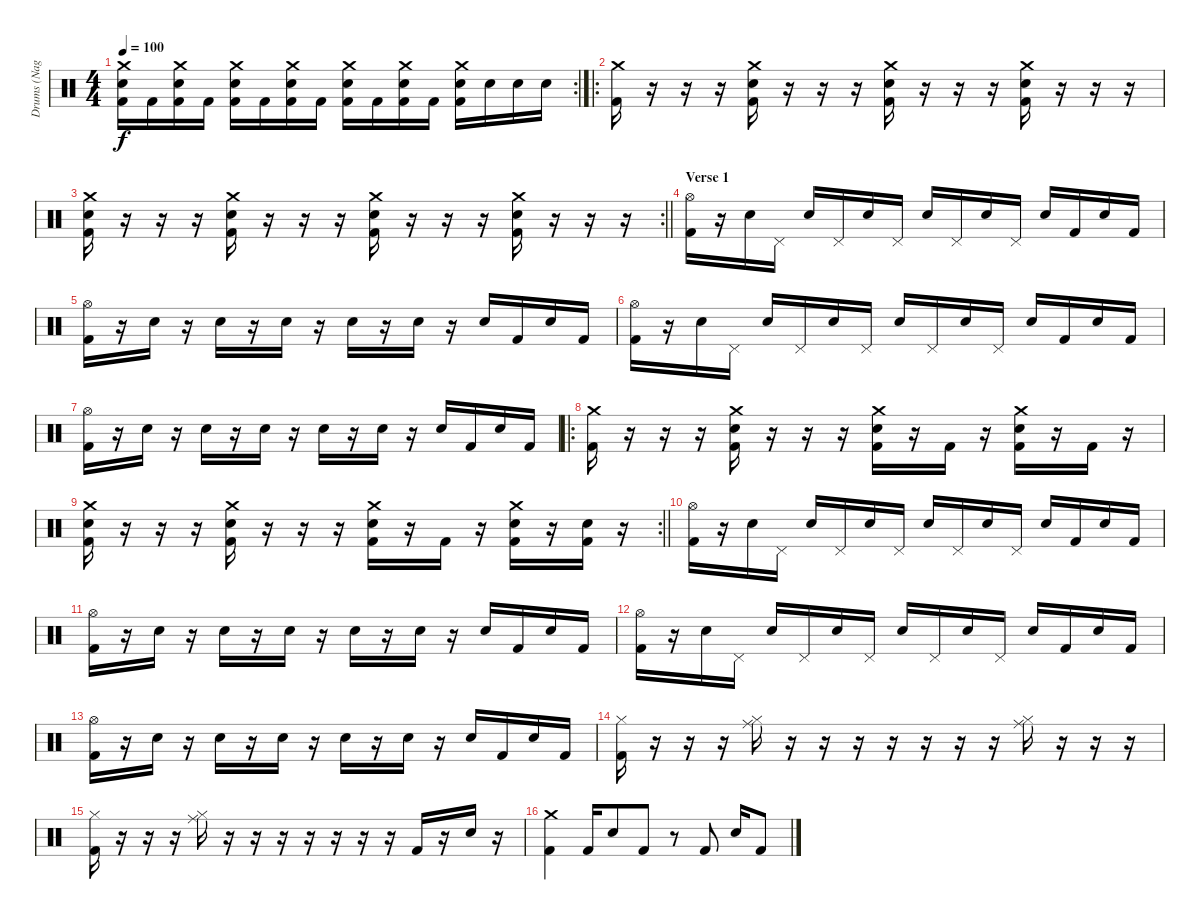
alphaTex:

\track ("Drums (Nagy Dávid)" "Drums (Nag") {instrument percussion}
\staff {score}
\articulation defaults
\rc 2
\ts (4 4)
\tempo 100
\clef neutral
\ks c
("Kick (hit) 2" "Electric Snare (hit)" "Crash medium (hit)").16{dy f} "Kick (hit) 2".16 ("Kick (hit) 2" "Electric Snare (hit)" "Crash medium (hit)").16 "Kick (hit) 2".16 ("Kick (hit) 2" "Electric Snare (hit)" "Crash medium (hit)").16 "Kick (hit) 2".16 ("Kick (hit) 2" "Electric Snare (hit)" "Crash medium (hit)").16 "Kick (hit) 2".16 ("Kick (hit) 2" "Electric Snare (hit)" "Crash medium (hit)").16 "Kick (hit) 2".16 ("Kick (hit) 2" "Electric Snare (hit)" "Crash medium (hit)").16 "Kick (hit) 2".16 ("Kick (hit) 2" "Electric Snare (hit)" "Crash medium (hit)").16 "Electric Snare (hit)".16 "Electric Snare (hit)".16 "Electric Snare (hit)".16 |
\ro
("Kick (hit) 2" "Crash medium (hit)").16 r.16 r.16 r.16 ("Kick (hit) 2" "Electric Snare (hit)" "Crash medium (hit)").16 r.16 r.16 r.16 ("Kick (hit) 2" "Electric Snare (hit)" "Crash medium (hit)").16 r.16 r.16 r.16 ("Kick (hit) 2" "Electric Snare (hit)" "Crash medium (hit)").16 r.16 r.16 r.16 |
\rc 2
\barLineRight lightlight
("Kick (hit) 2" "Electric Snare (hit)" "Crash medium (hit)").16 r.16 r.16 r.16 ("Kick (hit) 2" "Electric Snare (hit)" "Crash medium (hit)").16 r.16 r.16 r.16 ("Kick (hit) 2" "Electric Snare (hit)" "Crash medium (hit)").16 r.16 r.16 r.16 ("Kick (hit) 2" "Electric Snare (hit)" "Crash medium (hit)").16 r.16 r.16 r.16 |
\section ("" "Verse 1")
("Kick (hit) 2" "Hi-Hat (open)").16 r.16 "Electric Snare (hit)".16 "Pedal Hi-Hat (hit)".16 "Electric Snare (hit)".16 "Pedal Hi-Hat (hit)".16 "Electric Snare (hit)".16 "Pedal Hi-Hat (hit)".16 "Electric Snare (hit)".16 "Pedal Hi-Hat (hit)".16 "Electric Snare (hit)".16 "Pedal Hi-Hat (hit)".16 "Electric Snare (hit)".16 "Kick (hit) 2".16 "Electric Snare (hit)".16 "Kick (hit) 2".16 |
("Kick (hit) 2" "Hi-Hat (open)").16 r.16 "Electric Snare (hit)".16 r.16 "Electric Snare (hit)".16 r.16 "Electric Snare (hit)".16 r.16 "Electric Snare (hit)".16 r.16 "Electric Snare (hit)".16 r.16 "Electric Snare (hit)".16 "Kick (hit) 2".16 "Electric Snare (hit)".16 "Kick (hit) 2".16 |
("Kick (hit) 2" "Hi-Hat (open)").16 r.16 "Electric Snare (hit)".16 "Pedal Hi-Hat (hit)".16 "Electric Snare (hit)".16 "Pedal Hi-Hat (hit)".16 "Electric Snare (hit)".16 "Pedal Hi-Hat (hit)".16 "Electric Snare (hit)".16 "Pedal Hi-Hat (hit)".16 "Electric Snare (hit)".16 "Pedal Hi-Hat (hit)".16 "Electric Snare (hit)".16 "Kick (hit) 2".16 "Electric Snare (hit)".16 "Kick (hit) 2".16 |
("Kick (hit) 2" "Hi-Hat (open)").16 r.16 "Electric Snare (hit)".16 r.16 "Electric Snare (hit)".16 r.16 "Electric Snare (hit)".16 r.16 "Electric Snare (hit)".16 r.16 "Electric Snare (hit)".16 r.16 "Electric Snare (hit)".16 "Kick (hit) 2".16 "Electric Snare (hit)".16 "Kick (hit) 2".16 |
\ro
("Kick (hit) 2" "Crash medium (hit)").16 r.16 r.16 r.16 ("Kick (hit) 2" "Electric Snare (hit)" "Crash medium (hit)").16 r.16 r.16 r.16 ("Kick (hit) 2" "Electric Snare (hit)" "Crash medium (hit)").16 r.16 "Kick (hit) 2".16 r.16 ("Kick (hit) 2" "Electric Snare (hit)" "Crash medium (hit)").16 r.16 "Kick (hit) 2".16 r.16 |
\rc 2
\barLineRight lightlight
("Kick (hit) 2" "Electric Snare (hit)" "Crash medium (hit)").16 r.16 r.16 r.16 ("Kick (hit) 2" "Electric Snare (hit)" "Crash medium (hit)").16 r.16 r.16 r.16 ("Kick (hit) 2" "Electric Snare (hit)" "Crash medium (hit)").16 r.16 "Kick (hit) 2".16 r.16 ("Kick (hit) 2" "Electric Snare (hit)" "Crash medium (hit)").16 r.16 ("Kick (hit) 2" "Electric Snare (hit)").16 r.16 |
("Kick (hit) 2" "Hi-Hat (open)").16 r.16 "Electric Snare (hit)".16 "Pedal Hi-Hat (hit)".16 "Electric Snare (hit)".16 "Pedal Hi-Hat (hit)".16 "Electric Snare (hit)".16 "Pedal Hi-Hat (hit)".16 "Electric Snare (hit)".16 "Pedal Hi-Hat (hit)".16 "Electric Snare (hit)".16 "Pedal Hi-Hat (hit)".16 "Electric Snare (hit)".16 "Kick (hit) 2".16 "Electric Snare (hit)".16 "Kick (hit) 2".16 |
("Kick (hit) 2" "Hi-Hat (open)").16 r.16 "Electric Snare (hit)".16 r.16 "Electric Snare (hit)".16 r.16 "Electric Snare (hit)".16 r.16 "Electric Snare (hit)".16 r.16 "Electric Snare (hit)".16 r.16 "Electric Snare (hit)".16 "Kick (hit) 2".16 "Electric Snare (hit)".16 "Kick (hit) 2".16 |
("Kick (hit) 2" "Hi-Hat (open)").16 r.16 "Electric Snare (hit)".16 "Pedal Hi-Hat (hit)".16 "Electric Snare (hit)".16 "Pedal Hi-Hat (hit)".16 "Electric Snare (hit)".16 "Pedal Hi-Hat (hit)".16 "Electric Snare (hit)".16 "Pedal Hi-Hat (hit)".16 "Electric Snare (hit)".16 "Pedal Hi-Hat (hit)".16 "Electric Snare (hit)".16 "Kick (hit) 2".16 "Electric Snare (hit)".16 "Kick (hit) 2".16 |
("Kick (hit) 2" "Hi-Hat (open)").16 r.16 "Electric Snare (hit)".16 r.16 "Electric Snare (hit)".16 r.16 "Electric Snare (hit)".16 r.16 "Electric Snare (hit)".16 r.16 "Electric Snare (hit)".16 r.16 "Electric Snare (hit)".16 "Kick (hit) 2".16 "Electric Snare (hit)".16 "Kick (hit) 2".16 |
("Kick (hit) 2" "Hi-Hat (closed)").16 r.16 r.16 r.16 ("Ride (middle)" "Hi-Hat (closed)").16 r.16 r.16 r.16 r.16 r.16 r.16 r.16 ("Ride (middle)" "Hi-Hat (closed)").16 r.16 r.16 r.16 |
("Kick (hit) 2" "Hi-Hat (closed)").16 r.16 r.16 r.16 ("Ride (middle)" "Hi-Hat (closed)").16 r.16 r.16 r.16 r.16 r.16 r.16 r.16 "Kick (hit) 2".16 r.16 "Electric Snare (hit)".16 r.16 |
("Kick (hit) 2" "Crash medium (hit)").4 "Kick (hit) 2".16 "Electric Snare (hit)".8 "Kick (hit) 2".8 r.8 "Kick (hit) 2".8 "Electric Snare (hit)".16 "Kick (hit) 2".8
